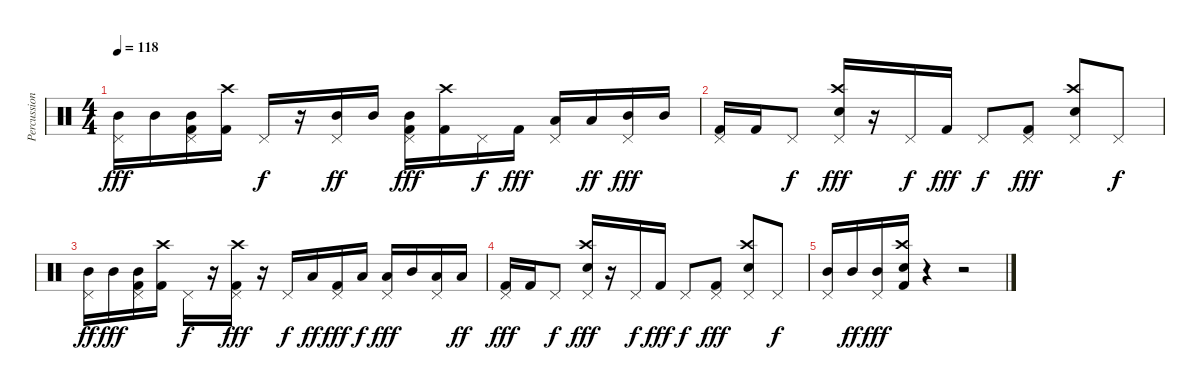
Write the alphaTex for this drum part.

\track ("Percussions" "Percussion") {instrument percussion}
\staff {score}
\articulation defaults
\ts (4 4)
\tempo 118
\clef neutral
\ks c
("Pedal Hi-Hat (hit)" "Mid Tom (hit)").16{dy fff} "Mid Tom (hit)".16 ("Pedal Hi-Hat (hit)" "Mid Tom (hit)" "Kick (hit) 2").16 ("Crash high (hit)" "Kick (hit) 2").16 "Pedal Hi-Hat (hit)".16{dy f} r.16 ("Pedal Hi-Hat (hit)" "Mid Tom (hit)").16{dy ff} "Mid Tom (hit)".16 ("Pedal Hi-Hat (hit)" "Mid Tom (hit)" "Kick (hit) 2").16{dy fff} ("Crash high (hit)" "Kick (hit) 2").16 "Pedal Hi-Hat (hit)".16{dy f} "Kick (hit) 2".16{dy fff} ("Pedal Hi-Hat (hit)" "Low Tom (hit)").16 "Low Tom (hit)".16{dy ff} ("Pedal Hi-Hat (hit)" "Mid Tom (hit)").16{dy fff} "Mid Tom (hit)".16 |
("Pedal Hi-Hat (hit)" "Kick (hit) 2").16 "Kick (hit) 2".16 "Pedal Hi-Hat (hit)".8{dy f} ("Pedal Hi-Hat (hit)" "Crash high (hit)" "Snare (hit) 2").16{dy fff} r.16 "Pedal Hi-Hat (hit)".16{dy f} "Kick (hit) 2".16{dy fff} "Pedal Hi-Hat (hit)".8{dy f} ("Pedal Hi-Hat (hit)" "Kick (hit) 2").8{dy fff} ("Pedal Hi-Hat (hit)" "Crash high (hit)" "Snare (hit) 2").8 "Pedal Hi-Hat (hit)".8{dy f} |
("Pedal Hi-Hat (hit)" "Mid Tom (hit)").16{dy ff} "Mid Tom (hit)".16{dy fff} ("Pedal Hi-Hat (hit)" "Mid Tom (hit)" "Kick (hit) 2").16 ("Crash high (hit)" "Kick (hit) 2").16 "Pedal Hi-Hat (hit)".16{dy f} r.16 ("Pedal Hi-Hat (hit)" "Crash high (hit)" "Kick (hit) 2").16{dy fff} r.16 "Pedal Hi-Hat (hit)".16{dy f} "Low Tom (hit)".16{dy ff} ("Pedal Hi-Hat (hit)" "Kick (hit) 2").16{dy fff} "Low Tom (hit)".16{dy f} ("Pedal Hi-Hat (hit)" "Low Tom (hit)").16{dy fff} "Mid Tom (hit)".16 ("Pedal Hi-Hat (hit)" "Low Tom (hit)").16 "Low Floor Tom (hit)".16{dy ff} |
("Pedal Hi-Hat (hit)" "Kick (hit) 2").16{dy fff} "Kick (hit) 2".16 "Pedal Hi-Hat (hit)".8{dy f} ("Pedal Hi-Hat (hit)" "Crash high (hit)" "Snare (hit) 2").16{dy fff} r.16 "Pedal Hi-Hat (hit)".16{dy f} "Kick (hit) 2".16{dy fff} "Pedal Hi-Hat (hit)".8{dy f} ("Pedal Hi-Hat (hit)" "Kick (hit) 2").8{dy fff} ("Pedal Hi-Hat (hit)" "Crash high (hit)" "Snare (hit) 2").8 "Pedal Hi-Hat (hit)".8{dy f} |
("Pedal Hi-Hat (hit)" "Mid Tom (hit)").16 "Mid Tom (hit)".16{dy ff} ("Pedal Hi-Hat (hit)" "Mid Tom (hit)").16{dy fff} ("Crash high (hit)" "Snare (hit) 2" "Kick (hit) 2").16 r.4 r.2
